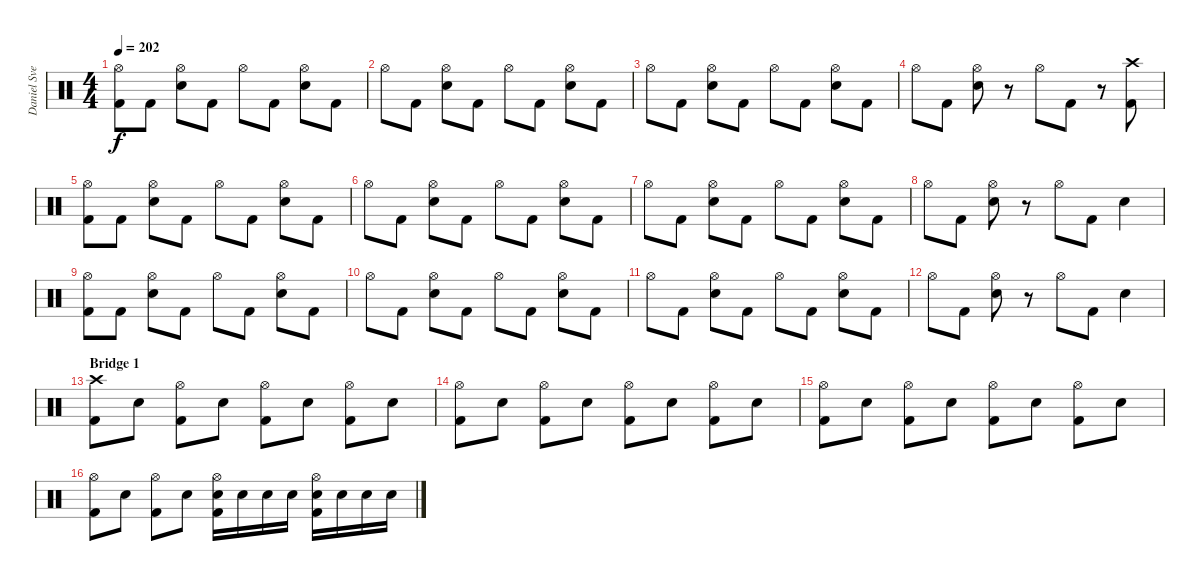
\track ("Daniel Svensson" "Daniel Sve") {instrument percussion}
\staff {score}
\articulation defaults
\ts (4 4)
\tempo 202
\clef neutral
\ks c
("Hi-Hat (open)" "Kick (hit) 2").8{dy f} "Kick (hit) 2".8 ("Hi-Hat (open)" "Electric Snare (hit)").8 "Kick (hit) 2".8 "Hi-Hat (open)".8 "Kick (hit) 2".8 ("Hi-Hat (open)" "Electric Snare (hit)").8 "Kick (hit) 2".8 |
"Hi-Hat (open)".8 "Kick (hit) 2".8 ("Hi-Hat (open)" "Electric Snare (hit)").8 "Kick (hit) 2".8 "Hi-Hat (open)".8 "Kick (hit) 2".8 ("Hi-Hat (open)" "Electric Snare (hit)").8 "Kick (hit) 2".8 |
"Hi-Hat (open)".8 "Kick (hit) 2".8 ("Hi-Hat (open)" "Electric Snare (hit)").8 "Kick (hit) 2".8 "Hi-Hat (open)".8 "Kick (hit) 2".8 ("Hi-Hat (open)" "Electric Snare (hit)").8 "Kick (hit) 2".8 |
"Hi-Hat (open)".8 "Kick (hit) 2".8 ("Hi-Hat (open)" "Electric Snare (hit)").8 r.8 "Hi-Hat (open)".8 "Kick (hit) 2".8 r.8 ("Crash high (hit)" "Kick (hit) 2").8 |
("Hi-Hat (open)" "Kick (hit) 2").8 "Kick (hit) 2".8 ("Hi-Hat (open)" "Electric Snare (hit)").8 "Kick (hit) 2".8 "Hi-Hat (open)".8 "Kick (hit) 2".8 ("Hi-Hat (open)" "Electric Snare (hit)").8 "Kick (hit) 2".8 |
"Hi-Hat (open)".8 "Kick (hit) 2".8 ("Hi-Hat (open)" "Electric Snare (hit)").8 "Kick (hit) 2".8 "Hi-Hat (open)".8 "Kick (hit) 2".8 ("Hi-Hat (open)" "Electric Snare (hit)").8 "Kick (hit) 2".8 |
"Hi-Hat (open)".8 "Kick (hit) 2".8 ("Hi-Hat (open)" "Electric Snare (hit)").8 "Kick (hit) 2".8 "Hi-Hat (open)".8 "Kick (hit) 2".8 ("Hi-Hat (open)" "Electric Snare (hit)").8 "Kick (hit) 2".8 |
"Hi-Hat (open)".8 "Kick (hit) 2".8 ("Hi-Hat (open)" "Electric Snare (hit)").8 r.8 "Hi-Hat (open)".8 "Kick (hit) 2".8 "Electric Snare (hit)".4 |
("Hi-Hat (open)" "Kick (hit) 2").8 "Kick (hit) 2".8 ("Hi-Hat (open)" "Electric Snare (hit)").8 "Kick (hit) 2".8 "Hi-Hat (open)".8 "Kick (hit) 2".8 ("Hi-Hat (open)" "Electric Snare (hit)").8 "Kick (hit) 2".8 |
"Hi-Hat (open)".8 "Kick (hit) 2".8 ("Hi-Hat (open)" "Electric Snare (hit)").8 "Kick (hit) 2".8 "Hi-Hat (open)".8 "Kick (hit) 2".8 ("Hi-Hat (open)" "Electric Snare (hit)").8 "Kick (hit) 2".8 |
"Hi-Hat (open)".8 "Kick (hit) 2".8 ("Hi-Hat (open)" "Electric Snare (hit)").8 "Kick (hit) 2".8 "Hi-Hat (open)".8 "Kick (hit) 2".8 ("Hi-Hat (open)" "Electric Snare (hit)").8 "Kick (hit) 2".8 |
"Hi-Hat (open)".8 "Kick (hit) 2".8 ("Hi-Hat (open)" "Electric Snare (hit)").8 r.8 "Hi-Hat (open)".8 "Kick (hit) 2".8 "Electric Snare (hit)".4 |
\section ("" "Bridge 1")
("Crash high (hit)" "Kick (hit) 2").8 "Electric Snare (hit)".8 ("Hi-Hat (open)" "Kick (hit) 2").8 "Electric Snare (hit)".8 ("Hi-Hat (open)" "Kick (hit) 2").8 "Electric Snare (hit)".8 ("Hi-Hat (open)" "Kick (hit) 2").8 "Electric Snare (hit)".8 |
("Hi-Hat (open)" "Kick (hit) 2").8 "Electric Snare (hit)".8 ("Hi-Hat (open)" "Kick (hit) 2").8 "Electric Snare (hit)".8 ("Hi-Hat (open)" "Kick (hit) 2").8 "Electric Snare (hit)".8 ("Hi-Hat (open)" "Kick (hit) 2").8 "Electric Snare (hit)".8 |
("Hi-Hat (open)" "Kick (hit) 2").8 "Electric Snare (hit)".8 ("Hi-Hat (open)" "Kick (hit) 2").8 "Electric Snare (hit)".8 ("Hi-Hat (open)" "Kick (hit) 2").8 "Electric Snare (hit)".8 ("Hi-Hat (open)" "Kick (hit) 2").8 "Electric Snare (hit)".8 |
("Hi-Hat (open)" "Kick (hit) 2").8 "Electric Snare (hit)".8 ("Hi-Hat (open)" "Kick (hit) 2").8 "Electric Snare (hit)".8 ("Hi-Hat (open)" "Electric Snare (hit)" "Kick (hit) 2").16 "Electric Snare (hit)".16 "Electric Snare (hit)".16 "Electric Snare (hit)".16 ("Hi-Hat (open)" "Electric Snare (hit)" "Kick (hit) 2").16 "Electric Snare (hit)".16 "Electric Snare (hit)".16 "Electric Snare (hit)".16
